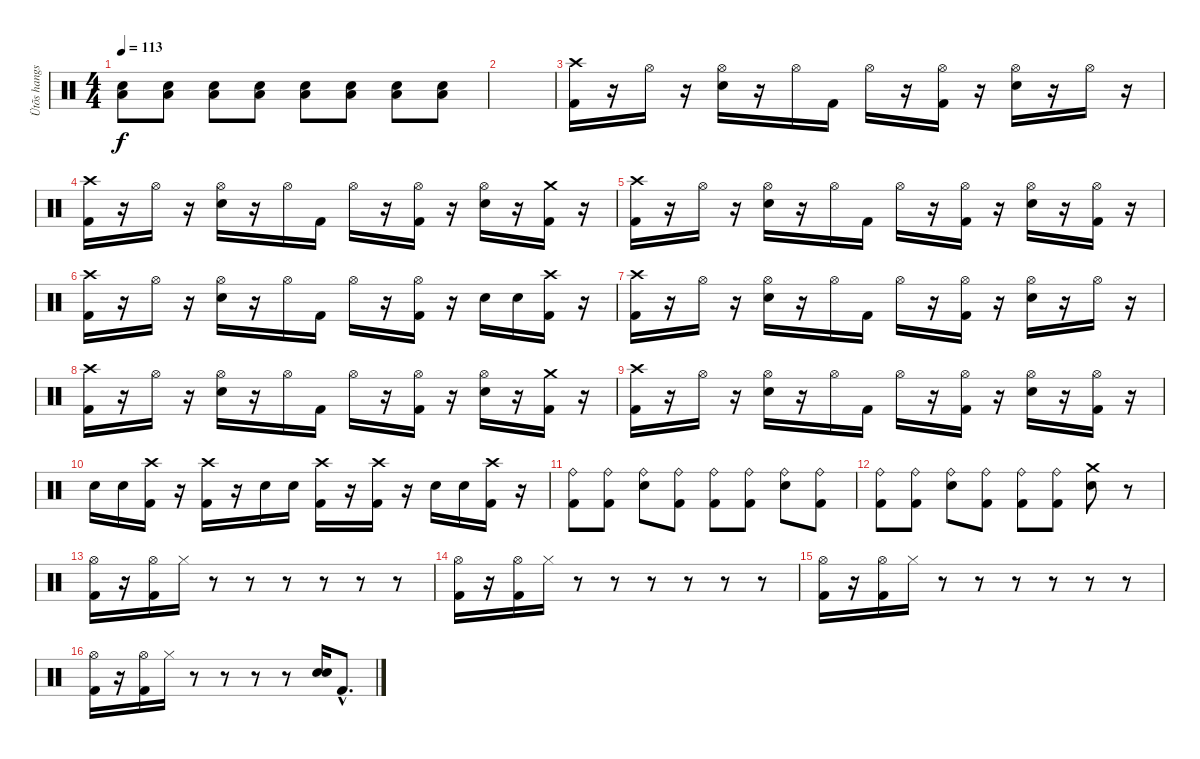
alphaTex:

\track ("Ütõs hangszer" "Ütõs hangs") {instrument percussion}
\staff {score}
\articulation defaults
\ts (4 4)
\tempo 113
\clef neutral
\ks c
("Low Floor Tom (hit)" "Electric Snare (hit)").8{dy f} ("Low Floor Tom (hit)" "Electric Snare (hit)").8 ("Low Floor Tom (hit)" "Electric Snare (hit)").8 ("Low Floor Tom (hit)" "Electric Snare (hit)").8 ("Low Floor Tom (hit)" "Electric Snare (hit)").8 ("Low Floor Tom (hit)" "Electric Snare (hit)").8 ("Low Floor Tom (hit)" "Electric Snare (hit)").8 ("Low Floor Tom (hit)" "Electric Snare (hit)").8 |
|
("Crash high (hit)" "Kick (hit) 2").16 r.16 "Hi-Hat (open)".16 r.16 ("Hi-Hat (open)" "Electric Snare (hit)").16 r.16 "Hi-Hat (open)".16 "Kick (hit) 2".16 "Hi-Hat (open)".16 r.16 ("Hi-Hat (open)" "Kick (hit) 2").16 r.16 ("Hi-Hat (open)" "Electric Snare (hit)").16 r.16 "Hi-Hat (open)".16 r.16 |
("Crash high (hit)" "Kick (hit) 2").16 r.16 "Hi-Hat (open)".16 r.16 ("Hi-Hat (open)" "Electric Snare (hit)").16 r.16 "Hi-Hat (open)".16 "Kick (hit) 2".16 "Hi-Hat (open)".16 r.16 ("Hi-Hat (open)" "Kick (hit) 2").16 r.16 ("Hi-Hat (open)" "Electric Snare (hit)").16 r.16 ("Crash medium (hit)" "Kick (hit) 2").16 r.16 |
("Crash high (hit)" "Kick (hit) 2").16 r.16 "Hi-Hat (open)".16 r.16 ("Hi-Hat (open)" "Electric Snare (hit)").16 r.16 "Hi-Hat (open)".16 "Kick (hit) 2".16 "Hi-Hat (open)".16 r.16 ("Hi-Hat (open)" "Kick (hit) 2").16 r.16 ("Hi-Hat (open)" "Electric Snare (hit)").16 r.16 ("Hi-Hat (open)" "Kick (hit) 2").16 r.16 |
("Crash high (hit)" "Kick (hit) 2").16 r.16 "Hi-Hat (open)".16 r.16 ("Hi-Hat (open)" "Electric Snare (hit)").16 r.16 "Hi-Hat (open)".16 "Kick (hit) 2".16 "Hi-Hat (open)".16 r.16 ("Hi-Hat (open)" "Kick (hit) 2").16 r.16 "Electric Snare (hit)".16 "Electric Snare (hit)".16 ("Crash high (hit)" "Kick (hit) 2").16 r.16 |
("Crash high (hit)" "Kick (hit) 2").16 r.16 "Hi-Hat (open)".16 r.16 ("Hi-Hat (open)" "Electric Snare (hit)").16 r.16 "Hi-Hat (open)".16 "Kick (hit) 2".16 "Hi-Hat (open)".16 r.16 ("Hi-Hat (open)" "Kick (hit) 2").16 r.16 ("Hi-Hat (open)" "Electric Snare (hit)").16 r.16 "Hi-Hat (open)".16 r.16 |
("Crash high (hit)" "Kick (hit) 2").16 r.16 "Hi-Hat (open)".16 r.16 ("Hi-Hat (open)" "Electric Snare (hit)").16 r.16 "Hi-Hat (open)".16 "Kick (hit) 2".16 "Hi-Hat (open)".16 r.16 ("Hi-Hat (open)" "Kick (hit) 2").16 r.16 ("Hi-Hat (open)" "Electric Snare (hit)").16 r.16 ("Crash medium (hit)" "Kick (hit) 2").16 r.16 |
("Crash high (hit)" "Kick (hit) 2").16 r.16 "Hi-Hat (open)".16 r.16 ("Hi-Hat (open)" "Electric Snare (hit)").16 r.16 "Hi-Hat (open)".16 "Kick (hit) 2".16 "Hi-Hat (open)".16 r.16 ("Hi-Hat (open)" "Kick (hit) 2").16 r.16 ("Hi-Hat (open)" "Electric Snare (hit)").16 r.16 ("Hi-Hat (open)" "Kick (hit) 2").16 r.16 |
"Electric Snare (hit)".16 "Electric Snare (hit)".16 ("Crash high (hit)" "Kick (hit) 2").16 r.16 ("Crash high (hit)" "Kick (hit) 2").16 r.16 "Electric Snare (hit)".16 "Electric Snare (hit)".16 ("Crash high (hit)" "Kick (hit) 2").16 r.16 ("Crash high (hit)" "Kick (hit) 2").16 r.16 "Electric Snare (hit)".16 "Electric Snare (hit)".16 ("Crash high (hit)" "Kick (hit) 2").16 r.16 |
("Ride (bell)" "Kick (hit) 2").8 ("Ride (bell)" "Kick (hit) 2").8 ("Ride (bell)" "Electric Snare (hit)").8 ("Ride (bell)" "Kick (hit) 2").8 ("Ride (bell)" "Kick (hit) 2").8 ("Ride (bell)" "Kick (hit) 2").8 ("Ride (bell)" "Electric Snare (hit)").8 ("Ride (bell)" "Kick (hit) 2").8 |
("Ride (bell)" "Kick (hit) 2").8 ("Ride (bell)" "Kick (hit) 2").8 ("Ride (bell)" "Electric Snare (hit)").8 ("Ride (bell)" "Kick (hit) 2").8 ("Ride (bell)" "Kick (hit) 2").8 ("Ride (bell)" "Kick (hit) 2").8 ("Crash medium (hit)" "Electric Snare (hit)").8 r.8 |
("Hi-Hat (open)" "Kick (hit) 2").16 r.16 ("Hi-Hat (open)" "Kick (hit) 2").16 "Hi-Hat (closed)".16 r.8 r.8 r.8 r.8 r.8 r.8 |
("Hi-Hat (open)" "Kick (hit) 2").16 r.16 ("Hi-Hat (open)" "Kick (hit) 2").16 "Hi-Hat (closed)".16 r.8 r.8 r.8 r.8 r.8 r.8 |
("Hi-Hat (open)" "Kick (hit) 2").16 r.16 ("Hi-Hat (open)" "Kick (hit) 2").16 "Hi-Hat (closed)".16 r.8 r.8 r.8 r.8 r.8 r.8 |
("Hi-Hat (open)" "Kick (hit) 2").16 r.16 ("Hi-Hat (open)" "Kick (hit) 2").16 "Hi-Hat (closed)".16 r.8 r.8 r.8 r.8 ("Electric Snare (hit)" "Electric Snare (hit)").16 "Kick (hit) 2"{hac}.8{d}
